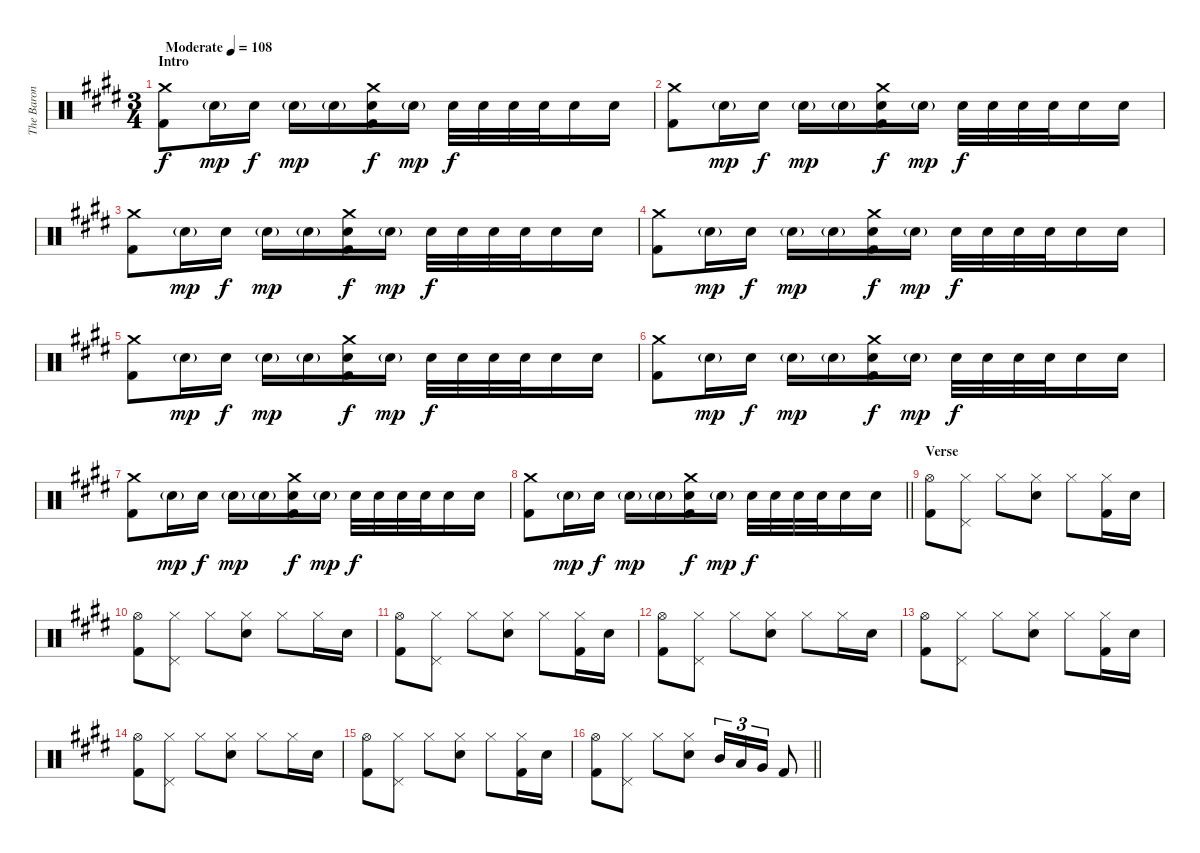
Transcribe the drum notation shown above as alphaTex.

\track ("The Baron Von Tito" "The Baron ") {instrument percussion}
\staff {score}
\articulation defaults
\ts (3 4)
\section ("" "Intro")
\tempo (108 "Moderate")
\clef neutral
\ks e
("Crash medium (hit)" "Kick (hit) 2").8{dy f} "Electric Snare (hit)"{g}.16{dy mp} "Electric Snare (hit)".16{dy f} "Electric Snare (hit)"{g}.16{dy mp} "Electric Snare (hit)"{g}.16 ("Crash medium (hit)" "Electric Snare (hit)" "Kick (hit) 2").16{dy f} "Electric Snare (hit)"{g}.16{dy mp} "Electric Snare (hit)".32{dy f} "Electric Snare (hit)".32 "Electric Snare (hit)".32 "Electric Snare (hit)".32 "Electric Snare (hit)".16 "Electric Snare (hit)".16 |
("Crash medium (hit)" "Kick (hit) 2").8 "Electric Snare (hit)"{g}.16{dy mp} "Electric Snare (hit)".16{dy f} "Electric Snare (hit)"{g}.16{dy mp} "Electric Snare (hit)"{g}.16 ("Crash medium (hit)" "Electric Snare (hit)" "Kick (hit) 2").16{dy f} "Electric Snare (hit)"{g}.16{dy mp} "Electric Snare (hit)".32{dy f} "Electric Snare (hit)".32 "Electric Snare (hit)".32 "Electric Snare (hit)".32 "Electric Snare (hit)".16 "Electric Snare (hit)".16 |
("Crash medium (hit)" "Kick (hit) 2").8 "Electric Snare (hit)"{g}.16{dy mp} "Electric Snare (hit)".16{dy f} "Electric Snare (hit)"{g}.16{dy mp} "Electric Snare (hit)"{g}.16 ("Crash medium (hit)" "Electric Snare (hit)" "Kick (hit) 2").16{dy f} "Electric Snare (hit)"{g}.16{dy mp} "Electric Snare (hit)".32{dy f} "Electric Snare (hit)".32 "Electric Snare (hit)".32 "Electric Snare (hit)".32 "Electric Snare (hit)".16 "Electric Snare (hit)".16 |
("Crash medium (hit)" "Kick (hit) 2").8 "Electric Snare (hit)"{g}.16{dy mp} "Electric Snare (hit)".16{dy f} "Electric Snare (hit)"{g}.16{dy mp} "Electric Snare (hit)"{g}.16 ("Crash medium (hit)" "Electric Snare (hit)" "Kick (hit) 2").16{dy f} "Electric Snare (hit)"{g}.16{dy mp} "Electric Snare (hit)".32{dy f} "Electric Snare (hit)".32 "Electric Snare (hit)".32 "Electric Snare (hit)".32 "Electric Snare (hit)".16 "Electric Snare (hit)".16 |
("Crash medium (hit)" "Kick (hit) 2").8 "Electric Snare (hit)"{g}.16{dy mp} "Electric Snare (hit)".16{dy f} "Electric Snare (hit)"{g}.16{dy mp} "Electric Snare (hit)"{g}.16 ("Crash medium (hit)" "Electric Snare (hit)" "Kick (hit) 2").16{dy f} "Electric Snare (hit)"{g}.16{dy mp} "Electric Snare (hit)".32{dy f} "Electric Snare (hit)".32 "Electric Snare (hit)".32 "Electric Snare (hit)".32 "Electric Snare (hit)".16 "Electric Snare (hit)".16 |
("Crash medium (hit)" "Kick (hit) 2").8 "Electric Snare (hit)"{g}.16{dy mp} "Electric Snare (hit)".16{dy f} "Electric Snare (hit)"{g}.16{dy mp} "Electric Snare (hit)"{g}.16 ("Crash medium (hit)" "Electric Snare (hit)" "Kick (hit) 2").16{dy f} "Electric Snare (hit)"{g}.16{dy mp} "Electric Snare (hit)".32{dy f} "Electric Snare (hit)".32 "Electric Snare (hit)".32 "Electric Snare (hit)".32 "Electric Snare (hit)".16 "Electric Snare (hit)".16 |
("Crash medium (hit)" "Kick (hit) 2").8 "Electric Snare (hit)"{g}.16{dy mp} "Electric Snare (hit)".16{dy f} "Electric Snare (hit)"{g}.16{dy mp} "Electric Snare (hit)"{g}.16 ("Crash medium (hit)" "Electric Snare (hit)" "Kick (hit) 2").16{dy f} "Electric Snare (hit)"{g}.16{dy mp} "Electric Snare (hit)".32{dy f} "Electric Snare (hit)".32 "Electric Snare (hit)".32 "Electric Snare (hit)".32 "Electric Snare (hit)".16 "Electric Snare (hit)".16 |
\barLineRight lightlight
("Crash medium (hit)" "Kick (hit) 2").8 "Electric Snare (hit)"{g}.16{dy mp} "Electric Snare (hit)".16{dy f} "Electric Snare (hit)"{g}.16{dy mp} "Electric Snare (hit)"{g}.16 ("Crash medium (hit)" "Electric Snare (hit)" "Kick (hit) 2").16{dy f} "Electric Snare (hit)"{g}.16{dy mp} "Electric Snare (hit)".32{dy f} "Electric Snare (hit)".32 "Electric Snare (hit)".32 "Electric Snare (hit)".32 "Electric Snare (hit)".16 "Electric Snare (hit)".16 |
\section ("" "Verse")
("Hi-Hat (open)" "Kick (hit) 2").8 ("Hi-Hat (closed)" "Pedal Hi-Hat (hit)").8 "Hi-Hat (closed)".8 ("Hi-Hat (closed)" "Electric Snare (hit)").8 "Hi-Hat (closed)".8 ("Hi-Hat (closed)" "Kick (hit) 2").16 "Electric Snare (hit)".16 |
("Hi-Hat (open)" "Kick (hit) 2").8 ("Hi-Hat (closed)" "Pedal Hi-Hat (hit)").8 "Hi-Hat (closed)".8 ("Hi-Hat (closed)" "Electric Snare (hit)").8 "Hi-Hat (closed)".8 "Hi-Hat (closed)".16 "Electric Snare (hit)".16 |
("Hi-Hat (open)" "Kick (hit) 2").8 ("Hi-Hat (closed)" "Pedal Hi-Hat (hit)").8 "Hi-Hat (closed)".8 ("Hi-Hat (closed)" "Electric Snare (hit)").8 "Hi-Hat (closed)".8 ("Hi-Hat (closed)" "Kick (hit) 2").16 "Electric Snare (hit)".16 |
("Hi-Hat (open)" "Kick (hit) 2").8 ("Hi-Hat (closed)" "Pedal Hi-Hat (hit)").8 "Hi-Hat (closed)".8 ("Hi-Hat (closed)" "Electric Snare (hit)").8 "Hi-Hat (closed)".8 "Hi-Hat (closed)".16 "Electric Snare (hit)".16 |
("Hi-Hat (open)" "Kick (hit) 2").8 ("Hi-Hat (closed)" "Pedal Hi-Hat (hit)").8 "Hi-Hat (closed)".8 ("Hi-Hat (closed)" "Electric Snare (hit)").8 "Hi-Hat (closed)".8 ("Hi-Hat (closed)" "Kick (hit) 2").16 "Electric Snare (hit)".16 |
("Hi-Hat (open)" "Kick (hit) 2").8 ("Hi-Hat (closed)" "Pedal Hi-Hat (hit)").8 "Hi-Hat (closed)".8 ("Hi-Hat (closed)" "Electric Snare (hit)").8 "Hi-Hat (closed)".8 "Hi-Hat (closed)".16 "Electric Snare (hit)".16 |
("Hi-Hat (open)" "Kick (hit) 2").8 ("Hi-Hat (closed)" "Pedal Hi-Hat (hit)").8 "Hi-Hat (closed)".8 ("Hi-Hat (closed)" "Electric Snare (hit)").8 "Hi-Hat (closed)".8 ("Hi-Hat (closed)" "Kick (hit) 2").16 "Electric Snare (hit)".16 |
\barLineRight lightlight
("Hi-Hat (open)" "Kick (hit) 2").8 ("Hi-Hat (closed)" "Pedal Hi-Hat (hit)").8 "Hi-Hat (closed)".8 ("Hi-Hat (closed)" "Electric Snare (hit)").8 "Mid Tom (hit)".16{tu (3 2)} "Low Tom (hit)".16{tu (3 2)} "Very Low Tom (hit)".16{tu (3 2)} "Kick (hit) 2".8
